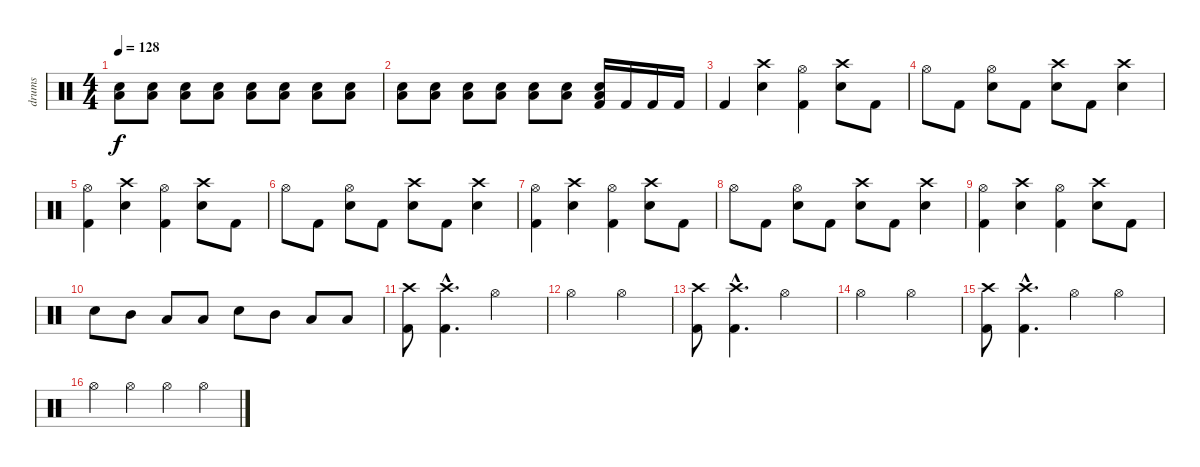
\track ("drums" "drums") {instrument percussion}
\staff {score}
\articulation defaults
\ts (4 4)
\tempo 128
\clef neutral
\ks c
("Electric Snare (hit)" "Low Floor Tom (hit)").8{dy f} ("Electric Snare (hit)" "Low Floor Tom (hit)").8 ("Electric Snare (hit)" "Low Floor Tom (hit)").8 ("Electric Snare (hit)" "Low Floor Tom (hit)").8 ("Electric Snare (hit)" "Low Floor Tom (hit)").8 ("Electric Snare (hit)" "Low Floor Tom (hit)").8 ("Electric Snare (hit)" "Low Floor Tom (hit)").8 ("Electric Snare (hit)" "Low Floor Tom (hit)").8 |
("Electric Snare (hit)" "Low Floor Tom (hit)").8 ("Electric Snare (hit)" "Low Floor Tom (hit)").8 ("Electric Snare (hit)" "Low Floor Tom (hit)").8 ("Electric Snare (hit)" "Low Floor Tom (hit)").8 ("Electric Snare (hit)" "Low Floor Tom (hit)").8 ("Electric Snare (hit)" "Low Floor Tom (hit)").8 ("Electric Snare (hit)" "Low Floor Tom (hit)" "Kick (hit) 2").16 "Kick (hit) 2".16 "Kick (hit) 2".16 "Kick (hit) 2".16 |
"Kick (hit) 2".4 ("Crash high (hit)" "Electric Snare (hit)").4 ("Hi-Hat (open)" "Kick (hit) 2").4 ("Crash high (hit)" "Electric Snare (hit)").8 "Kick (hit) 2".8 |
"Hi-Hat (open)".8 "Kick (hit) 2".8 ("Hi-Hat (open)" "Electric Snare (hit)").8 "Kick (hit) 2".8 ("Crash high (hit)" "Electric Snare (hit)").8 "Kick (hit) 2".8 ("Crash high (hit)" "Electric Snare (hit)").4 |
("Hi-Hat (open)" "Kick (hit) 2").4 ("Crash high (hit)" "Electric Snare (hit)").4 ("Hi-Hat (open)" "Kick (hit) 2").4 ("Crash high (hit)" "Electric Snare (hit)").8 "Kick (hit) 2".8 |
"Hi-Hat (open)".8 "Kick (hit) 2".8 ("Hi-Hat (open)" "Electric Snare (hit)").8 "Kick (hit) 2".8 ("Crash high (hit)" "Electric Snare (hit)").8 "Kick (hit) 2".8 ("Crash high (hit)" "Electric Snare (hit)").4 |
("Hi-Hat (open)" "Kick (hit) 2").4 ("Crash high (hit)" "Electric Snare (hit)").4 ("Hi-Hat (open)" "Kick (hit) 2").4 ("Crash high (hit)" "Electric Snare (hit)").8 "Kick (hit) 2".8 |
"Hi-Hat (open)".8 "Kick (hit) 2".8 ("Hi-Hat (open)" "Electric Snare (hit)").8 "Kick (hit) 2".8 ("Crash high (hit)" "Electric Snare (hit)").8 "Kick (hit) 2".8 ("Crash high (hit)" "Electric Snare (hit)").4 |
("Hi-Hat (open)" "Kick (hit) 2").4 ("Crash high (hit)" "Electric Snare (hit)").4 ("Hi-Hat (open)" "Kick (hit) 2").4 ("Crash high (hit)" "Electric Snare (hit)").8 "Kick (hit) 2".8 |
"Electric Snare (hit)".8 "Mid Tom (hit)".8 "Low Tom (hit)".8 "Low Floor Tom (hit)".8 "Electric Snare (hit)".8 "Mid Tom (hit)".8 "Low Tom (hit)".8 "Low Floor Tom (hit)".8 |
("Crash high (hit)" "Kick (hit) 2").8 ("Crash high (hit)"{hac} "Kick (hit) 2"{hac}).4{d} "Hi-Hat (open)".2 |
"Hi-Hat (open)".2 "Hi-Hat (open)".2 |
("Crash high (hit)" "Kick (hit) 2").8 ("Crash high (hit)"{hac} "Kick (hit) 2"{hac}).4{d} "Hi-Hat (open)".2 |
"Hi-Hat (open)".2 "Hi-Hat (open)".2 |
("Crash high (hit)" "Kick (hit) 2").8 ("Crash high (hit)"{hac} "Kick (hit) 2"{hac}).4{d} "Hi-Hat (open)".4 "Hi-Hat (open)".4 |
"Hi-Hat (open)".4 "Hi-Hat (open)".4 "Hi-Hat (open)".4 "Hi-Hat (open)".4
